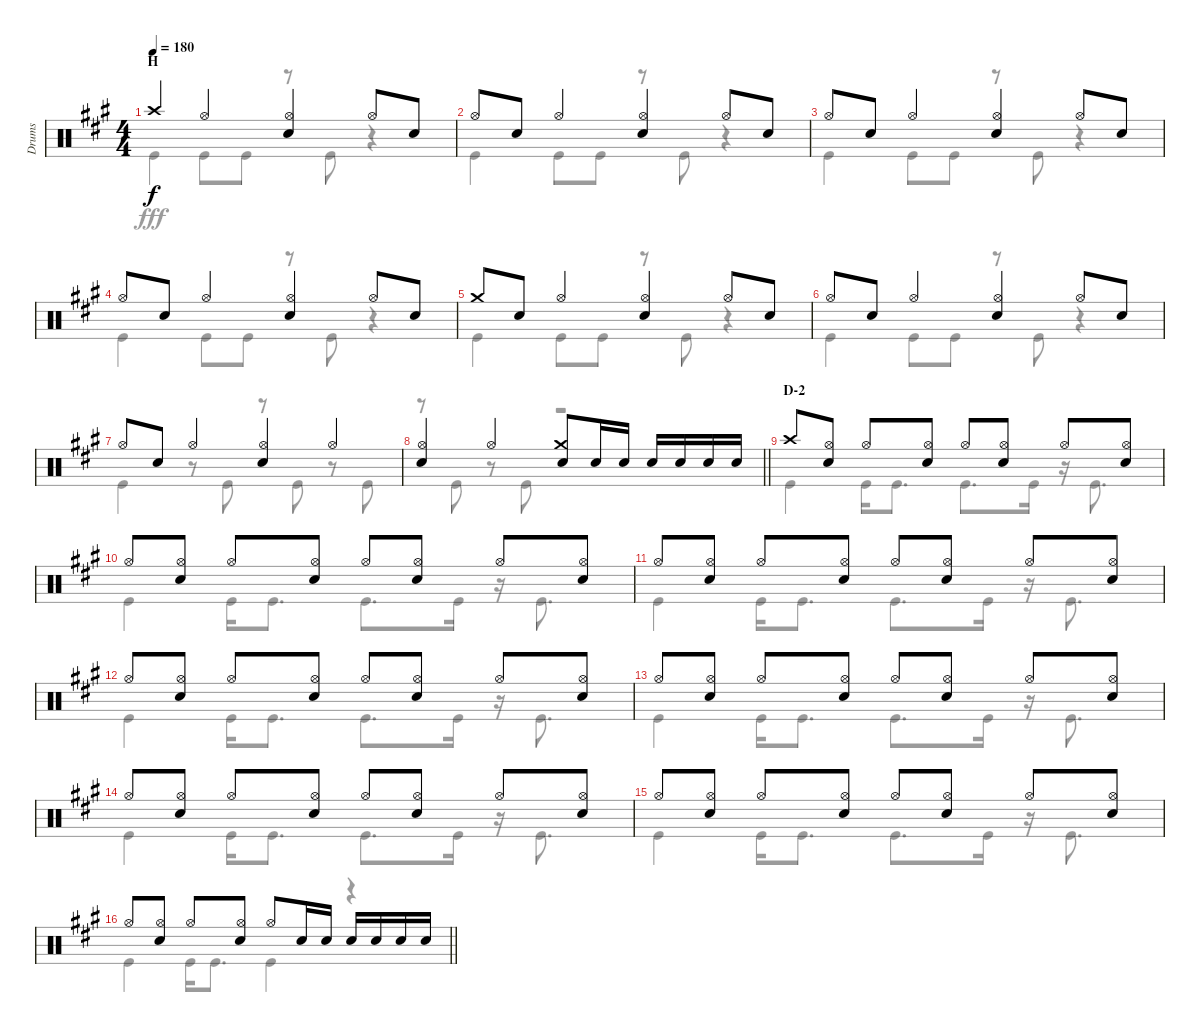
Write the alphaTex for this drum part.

\track ("Drums" "Drums") {instrument percussion}
\staff {score}
\articulation defaults
\voice
\ts (4 4)
\section ("" "H")
\tempo 180
\clef neutral
\ks a "Crash high (hit)".4{dy f} "Hi-Hat (open)".4
("Hi-Hat (open)" "Snare (hit) 2").4 "Hi-Hat (open)".8 "Snare (hit) 2".8 |
"Hi-Hat (open)".8 "Snare (hit) 2".8 "Hi-Hat (open)".4 ("Hi-Hat (open)" "Snare (hit) 2").4 "Hi-Hat (open)".8 "Snare (hit) 2".8 |
"Hi-Hat (open)".8 "Snare (hit) 2".8 "Hi-Hat (open)".4 ("Hi-Hat (open)" "Snare (hit) 2").4 "Hi-Hat (open)".8 "Snare (hit) 2".8 |
"Hi-Hat (open)".8 "Snare (hit) 2".8 "Hi-Hat (open)".4 ("Hi-Hat (open)" "Snare (hit) 2").4 "Hi-Hat (open)".8 "Snare (hit) 2".8 |
"Crash medium (hit)".8 "Snare (hit) 2".8 "Hi-Hat (open)".4 ("Hi-Hat (open)" "Snare (hit) 2").4 "Hi-Hat (open)".8 "Snare (hit) 2".8 |
"Hi-Hat (open)".8 "Snare (hit) 2".8 "Hi-Hat (open)".4 ("Hi-Hat (open)" "Snare (hit) 2").4 "Hi-Hat (open)".8 "Snare (hit) 2".8 |
"Hi-Hat (open)".8 "Snare (hit) 2".8 "Hi-Hat (open)".4 ("Hi-Hat (open)" "Snare (hit) 2").4 "Hi-Hat (open)".4 |
\barLineRight lightlight
("Hi-Hat (open)" "Snare (hit) 2").4 "Hi-Hat (open)".4 ("Crash medium (hit)" "Snare (hit) 2").8 "Snare (hit) 2".16 "Snare (hit) 2".16 "Snare (hit) 2".16 "Snare (hit) 2".16 "Snare (hit) 2".16 "Snare (hit) 2".16 |
\section ("" "D-2")
"Crash high (hit)".8 ("Hi-Hat (open)" "Snare (hit) 2").8 "Hi-Hat (open)".8 ("Hi-Hat (open)" "Snare (hit) 2").8 "Hi-Hat (open)".8 ("Hi-Hat (open)" "Snare (hit) 2").8 "Hi-Hat (open)".8 ("Hi-Hat (open)" "Snare (hit) 2").8 |
"Hi-Hat (open)".8 ("Hi-Hat (open)" "Snare (hit) 2").8 "Hi-Hat (open)".8 ("Hi-Hat (open)" "Snare (hit) 2").8 "Hi-Hat (open)".8 ("Hi-Hat (open)" "Snare (hit) 2").8 "Hi-Hat (open)".8 ("Hi-Hat (open)" "Snare (hit) 2").8 |
"Hi-Hat (open)".8 ("Hi-Hat (open)" "Snare (hit) 2").8 "Hi-Hat (open)".8 ("Hi-Hat (open)" "Snare (hit) 2").8 "Hi-Hat (open)".8 ("Hi-Hat (open)" "Snare (hit) 2").8 "Hi-Hat (open)".8 ("Hi-Hat (open)" "Snare (hit) 2").8 |
"Hi-Hat (open)".8 ("Hi-Hat (open)" "Snare (hit) 2").8 "Hi-Hat (open)".8 ("Hi-Hat (open)" "Snare (hit) 2").8 "Hi-Hat (open)".8 ("Hi-Hat (open)" "Snare (hit) 2").8 "Hi-Hat (open)".8 ("Hi-Hat (open)" "Snare (hit) 2").8 |
"Hi-Hat (open)".8 ("Hi-Hat (open)" "Snare (hit) 2").8 "Hi-Hat (open)".8 ("Hi-Hat (open)" "Snare (hit) 2").8 "Hi-Hat (open)".8 ("Hi-Hat (open)" "Snare (hit) 2").8 "Hi-Hat (open)".8 ("Hi-Hat (open)" "Snare (hit) 2").8 |
"Hi-Hat (open)".8 ("Hi-Hat (open)" "Snare (hit) 2").8 "Hi-Hat (open)".8 ("Hi-Hat (open)" "Snare (hit) 2").8 "Hi-Hat (open)".8 ("Hi-Hat (open)" "Snare (hit) 2").8 "Hi-Hat (open)".8 ("Hi-Hat (open)" "Snare (hit) 2").8 |
"Hi-Hat (open)".8 ("Hi-Hat (open)" "Snare (hit) 2").8 "Hi-Hat (open)".8 ("Hi-Hat (open)" "Snare (hit) 2").8 "Hi-Hat (open)".8 ("Hi-Hat (open)" "Snare (hit) 2").8 "Hi-Hat (open)".8 ("Hi-Hat (open)" "Snare (hit) 2").8 |
\barLineRight lightlight "Hi-Hat (open)".8
("Hi-Hat (open)" "Snare (hit) 2").8 "Hi-Hat (open)".8 ("Hi-Hat (open)" "Snare (hit) 2").8 "Hi-Hat (open)".8 "Snare (hit) 2".16 "Snare (hit) 2".16 "Snare (hit) 2".16 "Snare (hit) 2".16 "Snare (hit) 2".16 "Snare (hit) 2".16
\voice
\clef neutral
\ottava regular
\simile none
\ks a "Kick (hit)".4{dy fff} "Kick (hit)".8 "Kick (hit)".8
r.8 "Kick (hit)".8 r.4 |
"Kick (hit)".4 "Kick (hit)".8 "Kick (hit)".8 r.8 "Kick (hit)".8 r.4 |
"Kick (hit)".4 "Kick (hit)".8 "Kick (hit)".8 r.8 "Kick (hit)".8 r.4 |
"Kick (hit)".4 "Kick (hit)".8 "Kick (hit)".8 r.8 "Kick (hit)".8 r.4 |
"Kick (hit)".4 "Kick (hit)".8 "Kick (hit)".8 r.8 "Kick (hit)".8 r.4 |
"Kick (hit)".4 "Kick (hit)".8 "Kick (hit)".8 r.8 "Kick (hit)".8 r.4 |
"Kick (hit)".4 r.8 "Kick (hit)".8 r.8 "Kick (hit)".8 r.8 "Kick (hit)".8 |
\barLineRight lightlight
r.8 "Kick (hit)".8 r.8 "Kick (hit)".8 r.2 |
"Kick (hit)".4 "Kick (hit)".16 "Kick (hit)".8{d} "Kick (hit)".8{d} "Kick (hit)".16 r.16 "Kick (hit)".8{d} |
"Kick (hit)".4 "Kick (hit)".16 "Kick (hit)".8{d} "Kick (hit)".8{d} "Kick (hit)".16 r.16 "Kick (hit)".8{d} |
"Kick (hit)".4 "Kick (hit)".16 "Kick (hit)".8{d} "Kick (hit)".8{d} "Kick (hit)".16 r.16 "Kick (hit)".8{d} |
"Kick (hit)".4 "Kick (hit)".16 "Kick (hit)".8{d} "Kick (hit)".8{d} "Kick (hit)".16 r.16 "Kick (hit)".8{d} |
"Kick (hit)".4 "Kick (hit)".16 "Kick (hit)".8{d} "Kick (hit)".8{d} "Kick (hit)".16 r.16 "Kick (hit)".8{d} |
"Kick (hit)".4 "Kick (hit)".16 "Kick (hit)".8{d} "Kick (hit)".8{d} "Kick (hit)".16 r.16 "Kick (hit)".8{d} |
"Kick (hit)".4 "Kick (hit)".16 "Kick (hit)".8{d} "Kick (hit)".8{d} "Kick (hit)".16 r.16 "Kick (hit)".8{d} |
\barLineRight lightlight "Kick (hit)".4 "Kick (hit)".16 "Kick (hit)".8{d} "Kick (hit)".4
r.4
